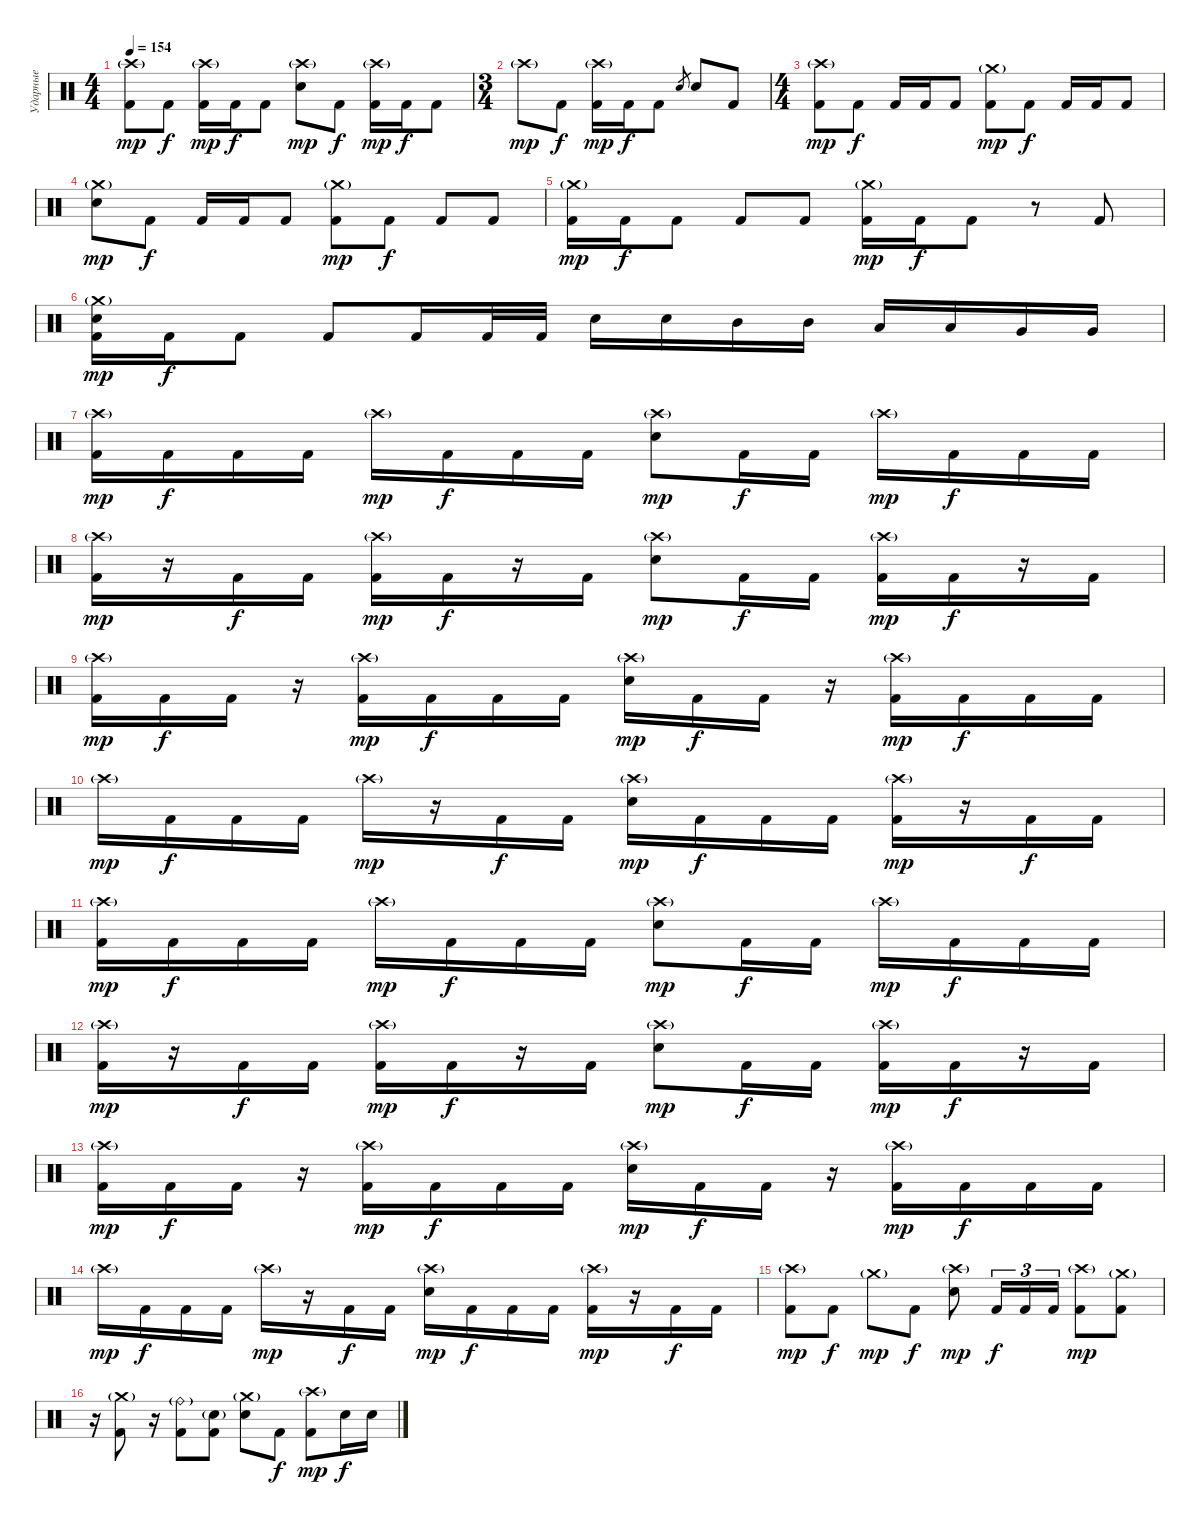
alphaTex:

\track ("Ударные" "Ударные") {instrument percussion}
\staff {score}
\articulation defaults
\ts (4 4)
\tempo 154
\clef neutral
\ks c
("Crash high (hit)"{g} "Kick (hit) 2").8{dy mp} "Kick (hit) 2".8{dy f} ("Crash high (hit)"{g} "Kick (hit) 2").16{dy mp} "Kick (hit) 2".16{dy f} "Kick (hit) 2".8 ("Crash high (hit)"{g} "Electric Snare (hit)").8{dy mp} "Kick (hit) 2".8{dy f} ("Crash high (hit)"{g} "Kick (hit) 2").16{dy mp} "Kick (hit) 2".16{dy f} "Kick (hit) 2".8 |
\ts (3 4)
"Crash high (hit)"{g}.8{dy mp} "Kick (hit) 2".8{dy f} ("Crash high (hit)"{g} "Kick (hit) 2").16{dy mp} "Kick (hit) 2".16{dy f} "Kick (hit) 2".8 "Electric Snare (hit)".8{gr} "Electric Snare (hit)".8 "Kick (hit) 2".8 |
\ts (4 4)
("Crash high (hit)"{g} "Kick (hit) 2").8{dy mp} "Kick (hit) 2".8{dy f} "Kick (hit) 2".16 "Kick (hit) 2".16 "Kick (hit) 2".8 ("Crash medium (hit)"{g} "Kick (hit) 2").8{dy mp} "Kick (hit) 2".8{dy f} "Kick (hit) 2".16 "Kick (hit) 2".16 "Kick (hit) 2".8 |
("Crash medium (hit)"{g} "Electric Snare (hit)").8{dy mp} "Kick (hit) 2".8{dy f} "Kick (hit) 2".16 "Kick (hit) 2".16 "Kick (hit) 2".8 ("Crash medium (hit)"{g} "Kick (hit) 2").8{dy mp} "Kick (hit) 2".8{dy f} "Kick (hit) 2".8 "Kick (hit) 2".8 |
("Crash medium (hit)"{g} "Kick (hit) 2").16{dy mp} "Kick (hit) 2".16{dy f} "Kick (hit) 2".8 "Kick (hit) 2".8 "Kick (hit) 2".8 ("Crash medium (hit)"{g} "Kick (hit) 2").16{dy mp} "Kick (hit) 2".16{dy f} "Kick (hit) 2".8 r.8 "Kick (hit) 2".8 |
("Crash medium (hit)"{g} "Electric Snare (hit)" "Kick (hit) 2").16{dy mp} "Kick (hit) 2".16{dy f} "Kick (hit) 2".8 "Kick (hit) 2".8 "Kick (hit) 2".16 "Kick (hit) 2".32 "Kick (hit) 2".32 "Electric Snare (hit)".16 "Electric Snare (hit)".16 "Mid Tom (hit)".16 "Mid Tom (hit)".16 "Low Tom (hit)".16 "Low Tom (hit)".16 "Very Low Tom (hit)".16 "Very Low Tom (hit)".16 |
("Crash high (hit)"{g} "Kick (hit) 2").16{dy mp} "Kick (hit) 2".16{dy f} "Kick (hit) 2".16 "Kick (hit) 2".16 "Crash high (hit)"{g}.16{dy mp} "Kick (hit) 2".16{dy f} "Kick (hit) 2".16 "Kick (hit) 2".16 ("Crash high (hit)"{g} "Electric Snare (hit)").8{dy mp} "Kick (hit) 2".16{dy f} "Kick (hit) 2".16 "Crash high (hit)"{g}.16{dy mp} "Kick (hit) 2".16{dy f} "Kick (hit) 2".16 "Kick (hit) 2".16 |
("Crash high (hit)"{g} "Kick (hit) 2").16{dy mp} r.16 "Kick (hit) 2".16{dy f} "Kick (hit) 2".16 ("Crash high (hit)"{g} "Kick (hit) 2").16{dy mp} "Kick (hit) 2".16{dy f} r.16 "Kick (hit) 2".16 ("Crash high (hit)"{g} "Electric Snare (hit)").8{dy mp} "Kick (hit) 2".16{dy f} "Kick (hit) 2".16 ("Crash high (hit)"{g} "Kick (hit) 2").16{dy mp} "Kick (hit) 2".16{dy f} r.16 "Kick (hit) 2".16 |
("Crash high (hit)"{g} "Kick (hit) 2").16{dy mp} "Kick (hit) 2".16{dy f} "Kick (hit) 2".16 r.16 ("Crash high (hit)"{g} "Kick (hit) 2").16{dy mp} "Kick (hit) 2".16{dy f} "Kick (hit) 2".16 "Kick (hit) 2".16 ("Crash high (hit)"{g} "Electric Snare (hit)").16{dy mp} "Kick (hit) 2".16{dy f} "Kick (hit) 2".16 r.16 ("Crash high (hit)"{g} "Kick (hit) 2").16{dy mp} "Kick (hit) 2".16{dy f} "Kick (hit) 2".16 "Kick (hit) 2".16 |
"Crash high (hit)"{g}.16{dy mp} "Kick (hit) 2".16{dy f} "Kick (hit) 2".16 "Kick (hit) 2".16 "Crash high (hit)"{g}.16{dy mp} r.16 "Kick (hit) 2".16{dy f} "Kick (hit) 2".16 ("Crash high (hit)"{g} "Electric Snare (hit)").16{dy mp} "Kick (hit) 2".16{dy f} "Kick (hit) 2".16 "Kick (hit) 2".16 ("Crash high (hit)"{g} "Kick (hit) 2").16{dy mp} r.16 "Kick (hit) 2".16{dy f} "Kick (hit) 2".16 |
("Crash high (hit)"{g} "Kick (hit) 2").16{dy mp} "Kick (hit) 2".16{dy f} "Kick (hit) 2".16 "Kick (hit) 2".16 "Crash high (hit)"{g}.16{dy mp} "Kick (hit) 2".16{dy f} "Kick (hit) 2".16 "Kick (hit) 2".16 ("Crash high (hit)"{g} "Electric Snare (hit)").8{dy mp} "Kick (hit) 2".16{dy f} "Kick (hit) 2".16 "Crash high (hit)"{g}.16{dy mp} "Kick (hit) 2".16{dy f} "Kick (hit) 2".16 "Kick (hit) 2".16 |
("Crash high (hit)"{g} "Kick (hit) 2").16{dy mp} r.16 "Kick (hit) 2".16{dy f} "Kick (hit) 2".16 ("Crash high (hit)"{g} "Kick (hit) 2").16{dy mp} "Kick (hit) 2".16{dy f} r.16 "Kick (hit) 2".16 ("Crash high (hit)"{g} "Electric Snare (hit)").8{dy mp} "Kick (hit) 2".16{dy f} "Kick (hit) 2".16 ("Crash high (hit)"{g} "Kick (hit) 2").16{dy mp} "Kick (hit) 2".16{dy f} r.16 "Kick (hit) 2".16 |
("Crash high (hit)"{g} "Kick (hit) 2").16{dy mp} "Kick (hit) 2".16{dy f} "Kick (hit) 2".16 r.16 ("Crash high (hit)"{g} "Kick (hit) 2").16{dy mp} "Kick (hit) 2".16{dy f} "Kick (hit) 2".16 "Kick (hit) 2".16 ("Crash high (hit)"{g} "Electric Snare (hit)").16{dy mp} "Kick (hit) 2".16{dy f} "Kick (hit) 2".16 r.16 ("Crash high (hit)"{g} "Kick (hit) 2").16{dy mp} "Kick (hit) 2".16{dy f} "Kick (hit) 2".16 "Kick (hit) 2".16 |
"Crash high (hit)"{g}.16{dy mp} "Kick (hit) 2".16{dy f} "Kick (hit) 2".16 "Kick (hit) 2".16 "Crash high (hit)"{g}.16{dy mp} r.16 "Kick (hit) 2".16{dy f} "Kick (hit) 2".16 ("Crash high (hit)"{g} "Electric Snare (hit)").16{dy mp} "Kick (hit) 2".16{dy f} "Kick (hit) 2".16 "Kick (hit) 2".16 ("Crash high (hit)"{g} "Kick (hit) 2").16{dy mp} r.16 "Kick (hit) 2".16{dy f} "Kick (hit) 2".16 |
("Crash high (hit)"{g} "Kick (hit) 2").8{dy mp} "Kick (hit) 2".8{dy f} "Crash medium (hit)"{g}.8{dy mp} "Kick (hit) 2".8{dy f} ("Crash high (hit)"{g} "Electric Snare (hit)").8{dy mp} "Kick (hit) 2".16{tu (3 2) dy f} "Kick (hit) 2".16{tu (3 2)} "Kick (hit) 2".16{tu (3 2)} ("Crash high (hit)"{g} "Kick (hit) 2").8{dy mp} ("Crash medium (hit)"{g} "Kick (hit) 2").8 |
r.16 ("Crash medium (hit)"{g} "Kick (hit) 2").8 r.16 ("Ride (bell)"{g} "Kick (hit) 2").8 ("Electric Snare (hit)"{g} "Kick (hit) 2").8 ("Crash medium (hit)"{g} "Electric Snare (hit)").8 "Kick (hit) 2".8{dy f} ("Crash high (hit)"{g} "Kick (hit) 2").8{dy mp} "Electric Snare (hit)".16{dy f} "Electric Snare (hit)".16
